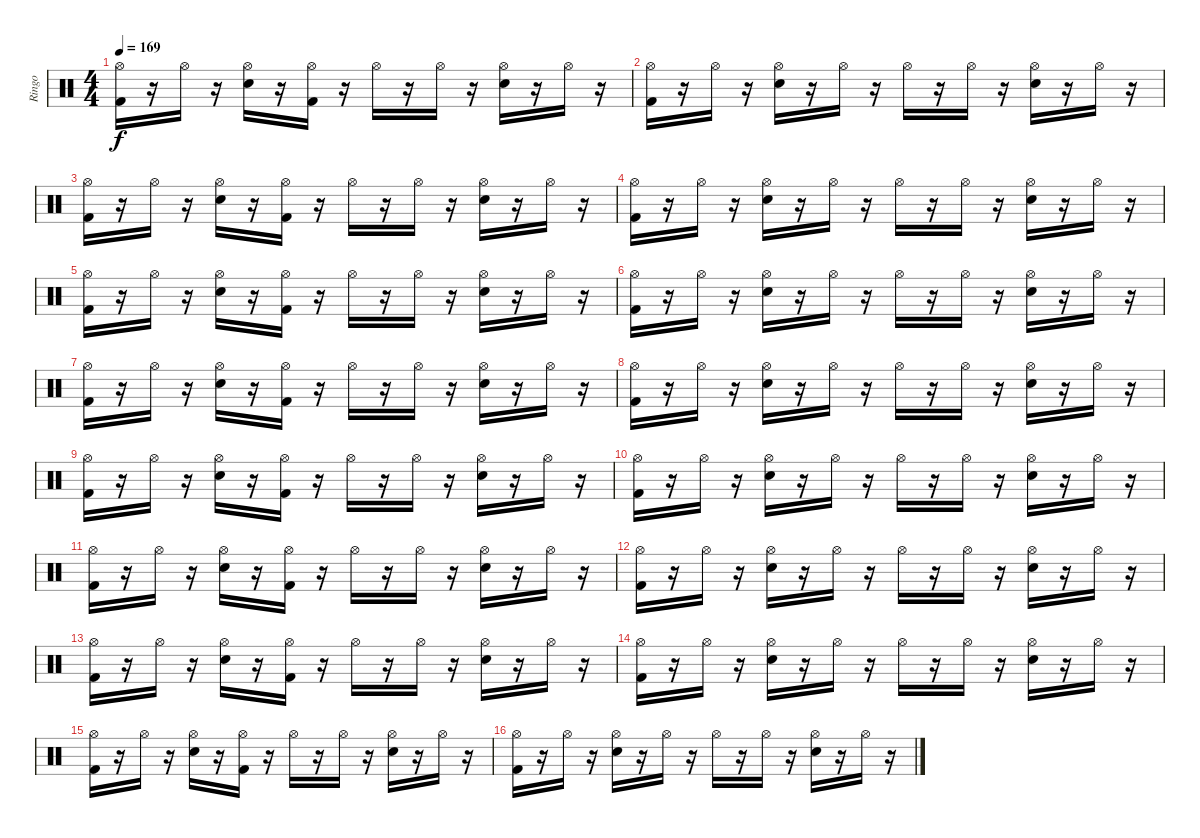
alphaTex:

\track ("Ringo" "Ringo") {instrument percussion}
\staff {score}
\articulation defaults
\ts (4 4)
\tempo 169
\clef neutral
\ks c
("Kick (hit) 2" "Hi-Hat (open)").16{dy f} r.16 "Hi-Hat (open)".16 r.16 ("Snare (hit) 2" "Hi-Hat (open)").16 r.16 ("Kick (hit) 2" "Hi-Hat (open)").16 r.16 "Hi-Hat (open)".16 r.16 "Hi-Hat (open)".16 r.16 ("Snare (hit) 2" "Hi-Hat (open)").16 r.16 "Hi-Hat (open)".16 r.16 |
("Kick (hit) 2" "Hi-Hat (open)").16 r.16 "Hi-Hat (open)".16 r.16 ("Snare (hit) 2" "Hi-Hat (open)").16 r.16 "Hi-Hat (open)".16 r.16 "Hi-Hat (open)".16 r.16 "Hi-Hat (open)".16 r.16 ("Snare (hit) 2" "Hi-Hat (open)").16 r.16 "Hi-Hat (open)".16 r.16 |
("Kick (hit) 2" "Hi-Hat (open)").16 r.16 "Hi-Hat (open)".16 r.16 ("Snare (hit) 2" "Hi-Hat (open)").16 r.16 ("Kick (hit) 2" "Hi-Hat (open)").16 r.16 "Hi-Hat (open)".16 r.16 "Hi-Hat (open)".16 r.16 ("Snare (hit) 2" "Hi-Hat (open)").16 r.16 "Hi-Hat (open)".16 r.16 |
("Kick (hit) 2" "Hi-Hat (open)").16 r.16 "Hi-Hat (open)".16 r.16 ("Snare (hit) 2" "Hi-Hat (open)").16 r.16 "Hi-Hat (open)".16 r.16 "Hi-Hat (open)".16 r.16 "Hi-Hat (open)".16 r.16 ("Snare (hit) 2" "Hi-Hat (open)").16 r.16 "Hi-Hat (open)".16 r.16 |
("Kick (hit) 2" "Hi-Hat (open)").16 r.16 "Hi-Hat (open)".16 r.16 ("Snare (hit) 2" "Hi-Hat (open)").16 r.16 ("Kick (hit) 2" "Hi-Hat (open)").16 r.16 "Hi-Hat (open)".16 r.16 "Hi-Hat (open)".16 r.16 ("Snare (hit) 2" "Hi-Hat (open)").16 r.16 "Hi-Hat (open)".16 r.16 |
("Kick (hit) 2" "Hi-Hat (open)").16 r.16 "Hi-Hat (open)".16 r.16 ("Snare (hit) 2" "Hi-Hat (open)").16 r.16 "Hi-Hat (open)".16 r.16 "Hi-Hat (open)".16 r.16 "Hi-Hat (open)".16 r.16 ("Snare (hit) 2" "Hi-Hat (open)").16 r.16 "Hi-Hat (open)".16 r.16 |
("Kick (hit) 2" "Hi-Hat (open)").16 r.16 "Hi-Hat (open)".16 r.16 ("Snare (hit) 2" "Hi-Hat (open)").16 r.16 ("Kick (hit) 2" "Hi-Hat (open)").16 r.16 "Hi-Hat (open)".16 r.16 "Hi-Hat (open)".16 r.16 ("Snare (hit) 2" "Hi-Hat (open)").16 r.16 "Hi-Hat (open)".16 r.16 |
("Kick (hit) 2" "Hi-Hat (open)").16 r.16 "Hi-Hat (open)".16 r.16 ("Snare (hit) 2" "Hi-Hat (open)").16 r.16 "Hi-Hat (open)".16 r.16 "Hi-Hat (open)".16 r.16 "Hi-Hat (open)".16 r.16 ("Snare (hit) 2" "Hi-Hat (open)").16 r.16 "Hi-Hat (open)".16 r.16 |
("Kick (hit) 2" "Hi-Hat (open)").16 r.16 "Hi-Hat (open)".16 r.16 ("Snare (hit) 2" "Hi-Hat (open)").16 r.16 ("Kick (hit) 2" "Hi-Hat (open)").16 r.16 "Hi-Hat (open)".16 r.16 "Hi-Hat (open)".16 r.16 ("Snare (hit) 2" "Hi-Hat (open)").16 r.16 "Hi-Hat (open)".16 r.16 |
("Kick (hit) 2" "Hi-Hat (open)").16 r.16 "Hi-Hat (open)".16 r.16 ("Snare (hit) 2" "Hi-Hat (open)").16 r.16 "Hi-Hat (open)".16 r.16 "Hi-Hat (open)".16 r.16 "Hi-Hat (open)".16 r.16 ("Snare (hit) 2" "Hi-Hat (open)").16 r.16 "Hi-Hat (open)".16 r.16 |
("Kick (hit) 2" "Hi-Hat (open)").16 r.16 "Hi-Hat (open)".16 r.16 ("Snare (hit) 2" "Hi-Hat (open)").16 r.16 ("Kick (hit) 2" "Hi-Hat (open)").16 r.16 "Hi-Hat (open)".16 r.16 "Hi-Hat (open)".16 r.16 ("Snare (hit) 2" "Hi-Hat (open)").16 r.16 "Hi-Hat (open)".16 r.16 |
("Kick (hit) 2" "Hi-Hat (open)").16 r.16 "Hi-Hat (open)".16 r.16 ("Snare (hit) 2" "Hi-Hat (open)").16 r.16 "Hi-Hat (open)".16 r.16 "Hi-Hat (open)".16 r.16 "Hi-Hat (open)".16 r.16 ("Snare (hit) 2" "Hi-Hat (open)").16 r.16 "Hi-Hat (open)".16 r.16 |
("Kick (hit) 2" "Hi-Hat (open)").16 r.16 "Hi-Hat (open)".16 r.16 ("Snare (hit) 2" "Hi-Hat (open)").16 r.16 ("Kick (hit) 2" "Hi-Hat (open)").16 r.16 "Hi-Hat (open)".16 r.16 "Hi-Hat (open)".16 r.16 ("Snare (hit) 2" "Hi-Hat (open)").16 r.16 "Hi-Hat (open)".16 r.16 |
("Kick (hit) 2" "Hi-Hat (open)").16 r.16 "Hi-Hat (open)".16 r.16 ("Snare (hit) 2" "Hi-Hat (open)").16 r.16 "Hi-Hat (open)".16 r.16 "Hi-Hat (open)".16 r.16 "Hi-Hat (open)".16 r.16 ("Snare (hit) 2" "Hi-Hat (open)").16 r.16 "Hi-Hat (open)".16 r.16 |
("Kick (hit) 2" "Hi-Hat (open)").16 r.16 "Hi-Hat (open)".16 r.16 ("Snare (hit) 2" "Hi-Hat (open)").16 r.16 ("Kick (hit) 2" "Hi-Hat (open)").16 r.16 "Hi-Hat (open)".16 r.16 "Hi-Hat (open)".16 r.16 ("Snare (hit) 2" "Hi-Hat (open)").16 r.16 "Hi-Hat (open)".16 r.16 |
("Kick (hit) 2" "Hi-Hat (open)").16 r.16 "Hi-Hat (open)".16 r.16 ("Snare (hit) 2" "Hi-Hat (open)").16 r.16 "Hi-Hat (open)".16 r.16 "Hi-Hat (open)".16 r.16 "Hi-Hat (open)".16 r.16 ("Snare (hit) 2" "Hi-Hat (open)").16 r.16 "Hi-Hat (open)".16 r.16
